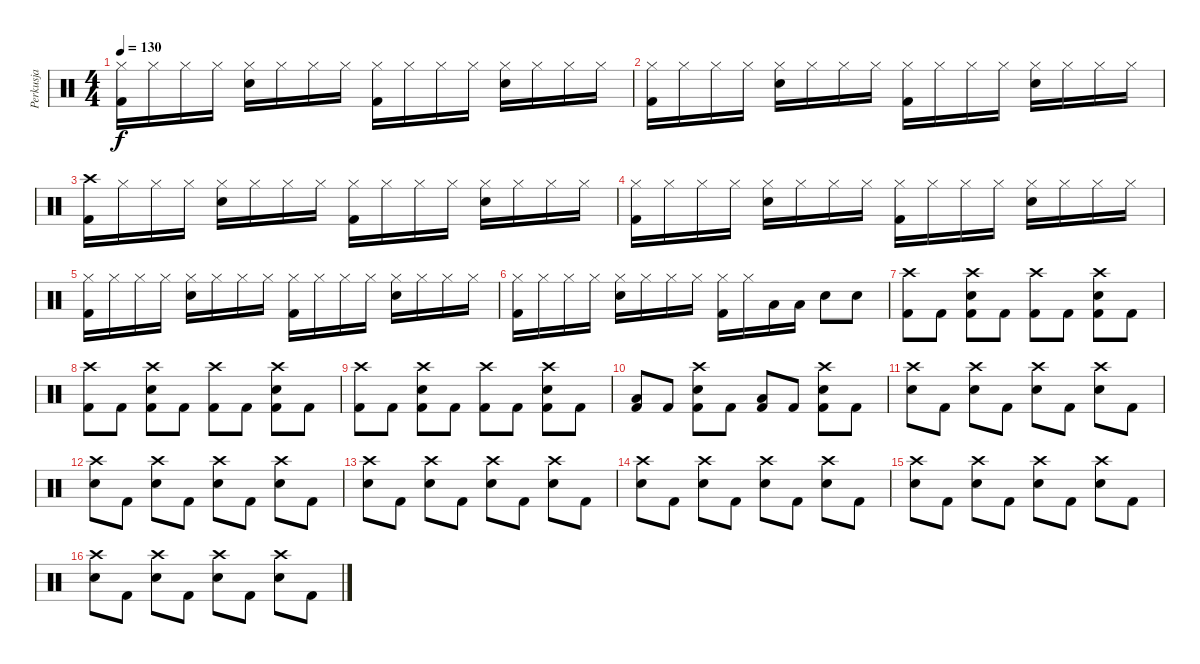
\track ("Perkusja" "Perkusja") {instrument percussion}
\staff {score}
\articulation defaults
\ts (4 4)
\tempo 130
\clef neutral
\ks c
("Hi-Hat (closed)" "Kick (hit) 2").16{dy f} "Hi-Hat (closed)".16 "Hi-Hat (closed)".16 "Hi-Hat (closed)".16 ("Hi-Hat (closed)" "Snare (hit) 2").16 "Hi-Hat (closed)".16 "Hi-Hat (closed)".16 "Hi-Hat (closed)".16 ("Hi-Hat (closed)" "Kick (hit) 2").16 "Hi-Hat (closed)".16 "Hi-Hat (closed)".16 "Hi-Hat (closed)".16 ("Hi-Hat (closed)" "Snare (hit) 2").16 "Hi-Hat (closed)".16 "Hi-Hat (closed)".16 "Hi-Hat (closed)".16 |
("Hi-Hat (closed)" "Kick (hit) 2").16 "Hi-Hat (closed)".16 "Hi-Hat (closed)".16 "Hi-Hat (closed)".16 ("Hi-Hat (closed)" "Snare (hit) 2").16 "Hi-Hat (closed)".16 "Hi-Hat (closed)".16 "Hi-Hat (closed)".16 ("Hi-Hat (closed)" "Kick (hit) 2").16 "Hi-Hat (closed)".16 "Hi-Hat (closed)".16 "Hi-Hat (closed)".16 ("Hi-Hat (closed)" "Snare (hit) 2").16 "Hi-Hat (closed)".16 "Hi-Hat (closed)".16 "Hi-Hat (closed)".16 |
("Crash high (hit)" "Kick (hit) 2").16 "Hi-Hat (closed)".16 "Hi-Hat (closed)".16 "Hi-Hat (closed)".16 ("Hi-Hat (closed)" "Snare (hit) 2").16 "Hi-Hat (closed)".16 "Hi-Hat (closed)".16 "Hi-Hat (closed)".16 ("Hi-Hat (closed)" "Kick (hit) 2").16 "Hi-Hat (closed)".16 "Hi-Hat (closed)".16 "Hi-Hat (closed)".16 ("Hi-Hat (closed)" "Snare (hit) 2").16 "Hi-Hat (closed)".16 "Hi-Hat (closed)".16 "Hi-Hat (closed)".16 |
("Hi-Hat (closed)" "Kick (hit) 2").16 "Hi-Hat (closed)".16 "Hi-Hat (closed)".16 "Hi-Hat (closed)".16 ("Hi-Hat (closed)" "Snare (hit) 2").16 "Hi-Hat (closed)".16 "Hi-Hat (closed)".16 "Hi-Hat (closed)".16 ("Hi-Hat (closed)" "Kick (hit) 2").16 "Hi-Hat (closed)".16 "Hi-Hat (closed)".16 "Hi-Hat (closed)".16 ("Hi-Hat (closed)" "Snare (hit) 2").16 "Hi-Hat (closed)".16 "Hi-Hat (closed)".16 "Hi-Hat (closed)".16 |
("Hi-Hat (closed)" "Kick (hit) 2").16 "Hi-Hat (closed)".16 "Hi-Hat (closed)".16 "Hi-Hat (closed)".16 ("Hi-Hat (closed)" "Snare (hit) 2").16 "Hi-Hat (closed)".16 "Hi-Hat (closed)".16 "Hi-Hat (closed)".16 ("Hi-Hat (closed)" "Kick (hit) 2").16 "Hi-Hat (closed)".16 "Hi-Hat (closed)".16 "Hi-Hat (closed)".16 ("Hi-Hat (closed)" "Snare (hit) 2").16 "Hi-Hat (closed)".16 "Hi-Hat (closed)".16 "Hi-Hat (closed)".16 |
("Hi-Hat (closed)" "Kick (hit) 2").16 "Hi-Hat (closed)".16 "Hi-Hat (closed)".16 "Hi-Hat (closed)".16 ("Hi-Hat (closed)" "Snare (hit) 2").16 "Hi-Hat (closed)".16 "Hi-Hat (closed)".16 "Hi-Hat (closed)".16 ("Hi-Hat (closed)" "Kick (hit) 2").16 "Hi-Hat (closed)".16 "Low Floor Tom (hit)".16 "Low Floor Tom (hit)".16 "Snare (hit) 2".8 "Snare (hit) 2".8 |
("Crash high (hit)" "Kick (hit) 2").8 "Kick (hit) 2".8 ("Crash high (hit)" "Snare (hit) 2" "Kick (hit) 2").8 "Kick (hit) 2".8 ("Crash high (hit)" "Kick (hit) 2").8 "Kick (hit) 2".8 ("Crash high (hit)" "Snare (hit) 2" "Kick (hit) 2").8 "Kick (hit) 2".8 |
("Crash high (hit)" "Kick (hit) 2").8 "Kick (hit) 2".8 ("Crash high (hit)" "Snare (hit) 2" "Kick (hit) 2").8 "Kick (hit) 2".8 ("Crash high (hit)" "Kick (hit) 2").8 "Kick (hit) 2".8 ("Crash high (hit)" "Snare (hit) 2" "Kick (hit) 2").8 "Kick (hit) 2".8 |
("Crash high (hit)" "Kick (hit) 2").8 "Kick (hit) 2".8 ("Crash high (hit)" "Snare (hit) 2" "Kick (hit) 2").8 "Kick (hit) 2".8 ("Crash high (hit)" "Kick (hit) 2").8 "Kick (hit) 2".8 ("Crash high (hit)" "Snare (hit) 2" "Kick (hit) 2").8 "Kick (hit) 2".8 |
("Low Floor Tom (hit)" "Kick (hit) 2").8 "Kick (hit) 2".8 ("Crash high (hit)" "Snare (hit) 2" "Kick (hit) 2").8 "Kick (hit) 2".8 ("Low Floor Tom (hit)" "Kick (hit) 2").8 "Kick (hit) 2".8 ("Crash high (hit)" "Snare (hit) 2" "Kick (hit) 2").8 "Kick (hit) 2".8 |
("Crash high (hit)" "Snare (hit) 2").8 "Kick (hit) 2".8 ("Crash high (hit)" "Snare (hit) 2").8 "Kick (hit) 2".8 ("Crash high (hit)" "Snare (hit) 2").8 "Kick (hit) 2".8 ("Crash high (hit)" "Snare (hit) 2").8 "Kick (hit) 2".8 |
("Crash high (hit)" "Snare (hit) 2").8 "Kick (hit) 2".8 ("Crash high (hit)" "Snare (hit) 2").8 "Kick (hit) 2".8 ("Crash high (hit)" "Snare (hit) 2").8 "Kick (hit) 2".8 ("Crash high (hit)" "Snare (hit) 2").8 "Kick (hit) 2".8 |
("Crash high (hit)" "Snare (hit) 2").8 "Kick (hit) 2".8 ("Crash high (hit)" "Snare (hit) 2").8 "Kick (hit) 2".8 ("Crash high (hit)" "Snare (hit) 2").8 "Kick (hit) 2".8 ("Crash high (hit)" "Snare (hit) 2").8 "Kick (hit) 2".8 |
("Crash high (hit)" "Snare (hit) 2").8 "Kick (hit) 2".8 ("Crash high (hit)" "Snare (hit) 2").8 "Kick (hit) 2".8 ("Crash high (hit)" "Snare (hit) 2").8 "Kick (hit) 2".8 ("Crash high (hit)" "Snare (hit) 2").8 "Kick (hit) 2".8 |
("Crash high (hit)" "Snare (hit) 2").8 "Kick (hit) 2".8 ("Crash high (hit)" "Snare (hit) 2").8 "Kick (hit) 2".8 ("Crash high (hit)" "Snare (hit) 2").8 "Kick (hit) 2".8 ("Crash high (hit)" "Snare (hit) 2").8 "Kick (hit) 2".8 |
("Crash high (hit)" "Snare (hit) 2").8 "Kick (hit) 2".8 ("Crash high (hit)" "Snare (hit) 2").8 "Kick (hit) 2".8 ("Crash high (hit)" "Snare (hit) 2").8 "Kick (hit) 2".8 ("Crash high (hit)" "Snare (hit) 2").8 "Kick (hit) 2".8
